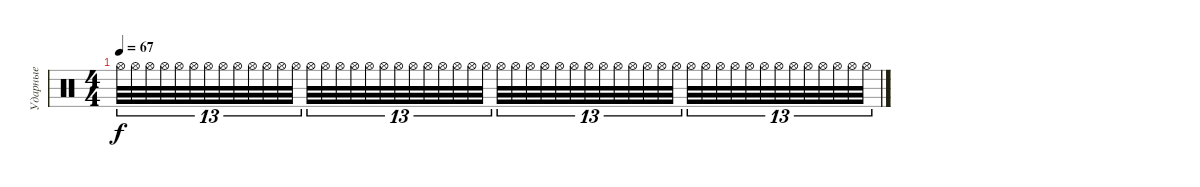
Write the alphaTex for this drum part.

\track ("Ударные" "Ударные") {instrument percussion}
\staff
\articulation defaults
\ts (4 4)
\tempo 67
\clef neutral
\ks c "Hi-Hat (open)".32{tu (13 8) dy f} "Hi-Hat (open)".32{tu (13 8)} "Hi-Hat (open)".32{tu (13 8)} "Hi-Hat (open)".32{tu (13 8)} "Hi-Hat (open)".32{tu (13 8)} "Hi-Hat (open)".32{tu (13 8)} "Hi-Hat (open)".32{tu (13 8)} "Hi-Hat (open)".32{tu (13 8)} "Hi-Hat (open)".32{tu (13 8)} "Hi-Hat (open)".32{tu (13 8)} "Hi-Hat (open)".32{tu (13 8)} "Hi-Hat (open)".32{tu (13 8)} "Hi-Hat (open)".32{tu (13 8)} "Hi-Hat (open)".32{tu (13 8)} "Hi-Hat (open)".32{tu (13 8)} "Hi-Hat (open)".32{tu (13 8)} "Hi-Hat (open)".32{tu (13 8)} "Hi-Hat (open)".32{tu (13 8)} "Hi-Hat (open)".32{tu (13 8)} "Hi-Hat (open)".32{tu (13 8)} "Hi-Hat (open)".32{tu (13 8)} "Hi-Hat (open)".32{tu (13 8)} "Hi-Hat (open)".32{tu (13 8)} "Hi-Hat (open)".32{tu (13 8)} "Hi-Hat (open)".32{tu (13 8)} "Hi-Hat (open)".32{tu (13 8)} "Hi-Hat (open)".32{tu (13 8)} "Hi-Hat (open)".32{tu (13 8)} "Hi-Hat (open)".32{tu (13 8)} "Hi-Hat (open)".32{tu (13 8)} "Hi-Hat (open)".32{tu (13 8)} "Hi-Hat (open)".32{tu (13 8)} "Hi-Hat (open)".32{tu (13 8)} "Hi-Hat (open)".32{tu (13 8)} "Hi-Hat (open)".32{tu (13 8)} "Hi-Hat (open)".32{tu (13 8)} "Hi-Hat (open)".32{tu (13 8)} "Hi-Hat (open)".32{tu (13 8)} "Hi-Hat (open)".32{tu (13 8)} "Hi-Hat (open)".32{tu (13 8)} "Hi-Hat (open)".32{tu (13 8)} "Hi-Hat (open)".32{tu (13 8)} "Hi-Hat (open)".32{tu (13 8)} "Hi-Hat (open)".32{tu (13 8)} "Hi-Hat (open)".32{tu (13 8)} "Hi-Hat (open)".32{tu (13 8)} "Hi-Hat (open)".32{tu (13 8)} "Hi-Hat (open)".32{tu (13 8)} "Hi-Hat (open)".32{tu (13 8)} "Hi-Hat (open)".32{tu (13 8)} "Hi-Hat (open)".32{tu (13 8)} "Hi-Hat (open)".32{tu (13 8)}
